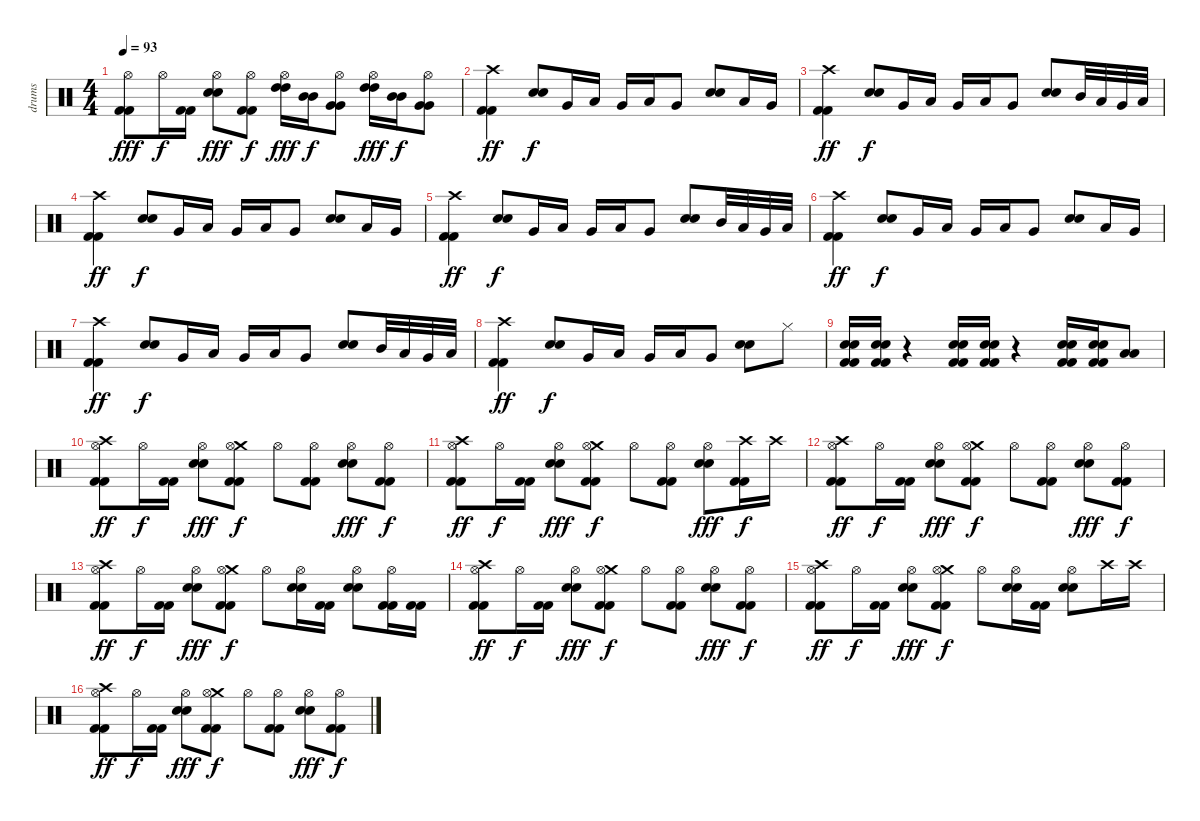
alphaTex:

\track ("drums" "drums") {instrument percussion}
\staff {score}
\articulation defaults
\ts (4 4)
\tempo 93
\clef neutral
\ks c
("Hi-Hat (open)" "Kick (hit) 2" "Kick (hit) 2").8{dy fff} "Hi-Hat (open)".16{dy f} ("Kick (hit) 2" "Kick (hit) 2").16 ("Electric Snare (hit)" "Electric Snare (hit)" "Hi-Hat (open)").8{dy fff} ("Hi-Hat (open)" "Kick (hit) 2" "Kick (hit) 2").8{dy f} ("Hi-Hat (open)" "High Tom (hit)" "High Tom (hit)").16{dy fff} ("Mid Tom (hit)" "Mid Tom (hit)").16{dy f} ("Hi-Hat (open)" "Very Low Tom (hit)" "Very Low Tom (hit)").8 ("Hi-Hat (open)" "High Tom (hit)" "High Tom (hit)").16{dy fff} ("Mid Tom (hit)" "Mid Tom (hit)").16{dy f} ("Hi-Hat (open)" "Very Low Tom (hit)" "Very Low Tom (hit)").8 |
("Crash high (hit)" "Kick (hit) 2" "Kick (hit) 2").4{dy ff} ("Electric Snare (hit)" "Electric Snare (hit)").8{dy f} "Very Low Tom (hit)".16 "Low Tom (hit)".16 "Very Low Tom (hit)".16 "Low Tom (hit)".16 "Very Low Tom (hit)".8 ("Electric Snare (hit)" "Electric Snare (hit)").8 "Low Tom (hit)".16 "Very Low Tom (hit)".16 |
("Crash high (hit)" "Kick (hit) 2" "Kick (hit) 2").4{dy ff} ("Electric Snare (hit)" "Electric Snare (hit)").8{dy f} "Very Low Tom (hit)".16 "Low Tom (hit)".16 "Very Low Tom (hit)".16 "Low Tom (hit)".16 "Very Low Tom (hit)".8 ("Electric Snare (hit)" "Electric Snare (hit)").8 "Mid Tom (hit)".32 "Low Tom (hit)".32 "Very Low Tom (hit)".32 "Low Floor Tom (hit)".32 |
("Crash high (hit)" "Kick (hit) 2" "Kick (hit) 2").4{dy ff} ("Electric Snare (hit)" "Electric Snare (hit)").8{dy f} "Very Low Tom (hit)".16 "Low Tom (hit)".16 "Very Low Tom (hit)".16 "Low Tom (hit)".16 "Very Low Tom (hit)".8 ("Electric Snare (hit)" "Electric Snare (hit)").8 "Low Tom (hit)".16 "Very Low Tom (hit)".16 |
("Crash high (hit)" "Kick (hit) 2" "Kick (hit) 2").4{dy ff} ("Electric Snare (hit)" "Electric Snare (hit)").8{dy f} "Very Low Tom (hit)".16 "Low Tom (hit)".16 "Very Low Tom (hit)".16 "Low Tom (hit)".16 "Very Low Tom (hit)".8 ("Electric Snare (hit)" "Electric Snare (hit)").8 "Mid Tom (hit)".32 "Low Tom (hit)".32 "Very Low Tom (hit)".32 "Low Floor Tom (hit)".32 |
("Crash high (hit)" "Kick (hit) 2" "Kick (hit) 2").4{dy ff} ("Electric Snare (hit)" "Electric Snare (hit)").8{dy f} "Very Low Tom (hit)".16 "Low Tom (hit)".16 "Very Low Tom (hit)".16 "Low Tom (hit)".16 "Very Low Tom (hit)".8 ("Electric Snare (hit)" "Electric Snare (hit)").8 "Low Tom (hit)".16 "Very Low Tom (hit)".16 |
("Crash high (hit)" "Kick (hit) 2" "Kick (hit) 2").4{dy ff} ("Electric Snare (hit)" "Electric Snare (hit)").8{dy f} "Very Low Tom (hit)".16 "Low Tom (hit)".16 "Very Low Tom (hit)".16 "Low Tom (hit)".16 "Very Low Tom (hit)".8 ("Electric Snare (hit)" "Electric Snare (hit)").8 "Mid Tom (hit)".32 "Low Tom (hit)".32 "Very Low Tom (hit)".32 "Low Floor Tom (hit)".32 |
("Crash high (hit)" "Kick (hit) 2" "Kick (hit) 2").4{dy ff} ("Electric Snare (hit)" "Electric Snare (hit)").8{dy f} "Very Low Tom (hit)".16 "Low Tom (hit)".16 "Very Low Tom (hit)".16 "Low Tom (hit)".16 "Very Low Tom (hit)".8 ("Electric Snare (hit)" "Electric Snare (hit)").8 "Hi-Hat (closed)".8 |
("Electric Snare (hit)" "Electric Snare (hit)" "Kick (hit) 2" "Kick (hit) 2").16 ("Electric Snare (hit)" "Electric Snare (hit)" "Kick (hit) 2" "Kick (hit) 2").16 r.4 ("Electric Snare (hit)" "Electric Snare (hit)" "Kick (hit) 2" "Kick (hit) 2").16 ("Electric Snare (hit)" "Electric Snare (hit)" "Kick (hit) 2" "Kick (hit) 2").16 r.4 ("Electric Snare (hit)" "Electric Snare (hit)" "Kick (hit) 2" "Kick (hit) 2").16 ("Electric Snare (hit)" "Electric Snare (hit)" "Kick (hit) 2" "Kick (hit) 2").16 ("Low Floor Tom (hit)" "Low Floor Tom (hit)").8 |
("Crash high (hit)" "Hi-Hat (open)" "Kick (hit) 2" "Kick (hit) 2").8{dy ff} "Hi-Hat (open)".16{dy f} ("Kick (hit) 2" "Kick (hit) 2").16 ("Electric Snare (hit)" "Electric Snare (hit)" "Hi-Hat (open)").8{dy fff} ("Crash medium (hit)" "Hi-Hat (open)" "Kick (hit) 2" "Kick (hit) 2").8{dy f} "Hi-Hat (open)".8 ("Hi-Hat (open)" "Kick (hit) 2" "Kick (hit) 2").8 ("Electric Snare (hit)" "Electric Snare (hit)" "Hi-Hat (open)").8{dy fff} ("Hi-Hat (open)" "Kick (hit) 2" "Kick (hit) 2").8{dy f} |
("Crash high (hit)" "Hi-Hat (open)" "Kick (hit) 2" "Kick (hit) 2").8{dy ff} "Hi-Hat (open)".16{dy f} ("Kick (hit) 2" "Kick (hit) 2").16 ("Electric Snare (hit)" "Electric Snare (hit)" "Hi-Hat (open)").8{dy fff} ("Crash medium (hit)" "Hi-Hat (open)" "Kick (hit) 2" "Kick (hit) 2").8{dy f} "Hi-Hat (open)".8 ("Hi-Hat (open)" "Kick (hit) 2" "Kick (hit) 2").8 ("Electric Snare (hit)" "Electric Snare (hit)" "Hi-Hat (open)").8{dy fff} ("Crash high (hit)" "Kick (hit) 2" "Kick (hit) 2").16{dy f} "Crash high (hit)".16 |
("Crash high (hit)" "Hi-Hat (open)" "Kick (hit) 2" "Kick (hit) 2").8{dy ff} "Hi-Hat (open)".16{dy f} ("Kick (hit) 2" "Kick (hit) 2").16 ("Electric Snare (hit)" "Electric Snare (hit)" "Hi-Hat (open)").8{dy fff} ("Crash medium (hit)" "Hi-Hat (open)" "Kick (hit) 2" "Kick (hit) 2").8{dy f} "Hi-Hat (open)".8 ("Hi-Hat (open)" "Kick (hit) 2" "Kick (hit) 2").8 ("Electric Snare (hit)" "Electric Snare (hit)" "Hi-Hat (open)").8{dy fff} ("Hi-Hat (open)" "Kick (hit) 2" "Kick (hit) 2").8{dy f} |
("Crash high (hit)" "Hi-Hat (open)" "Kick (hit) 2" "Kick (hit) 2").8{dy ff} "Hi-Hat (open)".16{dy f} ("Kick (hit) 2" "Kick (hit) 2").16 ("Electric Snare (hit)" "Electric Snare (hit)" "Hi-Hat (open)").8{dy fff} ("Crash medium (hit)" "Hi-Hat (open)" "Kick (hit) 2" "Kick (hit) 2").8{dy f} "Hi-Hat (open)".8 ("Electric Snare (hit)" "Electric Snare (hit)" "Hi-Hat (open)").16 ("Kick (hit) 2" "Kick (hit) 2").16 ("Electric Snare (hit)" "Electric Snare (hit)" "Hi-Hat (open)").8 ("Hi-Hat (open)" "Kick (hit) 2" "Kick (hit) 2").16 ("Kick (hit) 2" "Kick (hit) 2").16 |
("Crash high (hit)" "Hi-Hat (open)" "Kick (hit) 2" "Kick (hit) 2").8{dy ff} "Hi-Hat (open)".16{dy f} ("Kick (hit) 2" "Kick (hit) 2").16 ("Electric Snare (hit)" "Electric Snare (hit)" "Hi-Hat (open)").8{dy fff} ("Crash medium (hit)" "Hi-Hat (open)" "Kick (hit) 2" "Kick (hit) 2").8{dy f} "Hi-Hat (open)".8 ("Hi-Hat (open)" "Kick (hit) 2" "Kick (hit) 2").8 ("Electric Snare (hit)" "Electric Snare (hit)" "Hi-Hat (open)").8{dy fff} ("Hi-Hat (open)" "Kick (hit) 2" "Kick (hit) 2").8{dy f} |
("Crash high (hit)" "Hi-Hat (open)" "Kick (hit) 2" "Kick (hit) 2").8{dy ff} "Hi-Hat (open)".16{dy f} ("Kick (hit) 2" "Kick (hit) 2").16 ("Electric Snare (hit)" "Electric Snare (hit)" "Hi-Hat (open)").8{dy fff} ("Crash medium (hit)" "Hi-Hat (open)" "Kick (hit) 2" "Kick (hit) 2").8{dy f} "Hi-Hat (open)".8 ("Electric Snare (hit)" "Electric Snare (hit)" "Hi-Hat (open)").16 ("Kick (hit) 2" "Kick (hit) 2").16 ("Electric Snare (hit)" "Electric Snare (hit)" "Hi-Hat (open)").8 "Crash high (hit)".16 "Crash high (hit)".16 |
("Crash high (hit)" "Hi-Hat (open)" "Kick (hit) 2" "Kick (hit) 2").8{dy ff} "Hi-Hat (open)".16{dy f} ("Kick (hit) 2" "Kick (hit) 2").16 ("Electric Snare (hit)" "Electric Snare (hit)" "Hi-Hat (open)").8{dy fff} ("Crash medium (hit)" "Hi-Hat (open)" "Kick (hit) 2" "Kick (hit) 2").8{dy f} "Hi-Hat (open)".8 ("Hi-Hat (open)" "Kick (hit) 2" "Kick (hit) 2").8 ("Electric Snare (hit)" "Electric Snare (hit)" "Hi-Hat (open)").8{dy fff} ("Hi-Hat (open)" "Kick (hit) 2" "Kick (hit) 2").8{dy f}
